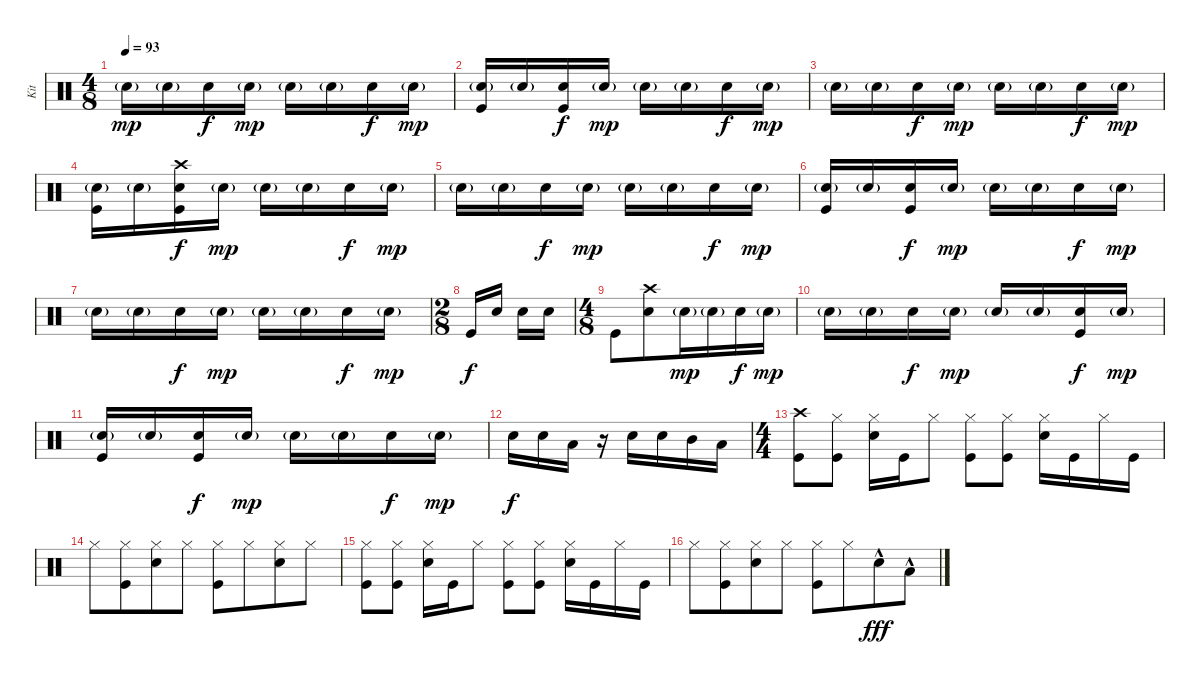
\track ("Kit" "Kit") {instrument percussion}
\staff {score}
\articulation defaults
\ts (4 8)
\tempo 93
\clef neutral
\ks aminor "Electric Snare (hit)"{g}.16{dy mp} "Electric Snare (hit)"{g}.16 "Electric Snare (hit)".16{dy f} "Electric Snare (hit)"{g}.16{dy mp} "Electric Snare (hit)"{g}.16 "Electric Snare (hit)"{g}.16 "Electric Snare (hit)".16{dy f} "Electric Snare (hit)"{g}.16{dy mp}
|
("Electric Snare (hit)"{g} "Kick (hit)").16 "Electric Snare (hit)"{g}.16 ("Electric Snare (hit)" "Kick (hit)").16{dy f} "Electric Snare (hit)"{g}.16{dy mp} "Electric Snare (hit)"{g}.16 "Electric Snare (hit)"{g}.16 "Electric Snare (hit)".16{dy f} "Electric Snare (hit)"{g}.16{dy mp} |
"Electric Snare (hit)"{g}.16 "Electric Snare (hit)"{g}.16 "Electric Snare (hit)".16{dy f} "Electric Snare (hit)"{g}.16{dy mp} "Electric Snare (hit)"{g}.16 "Electric Snare (hit)"{g}.16 "Electric Snare (hit)".16{dy f} "Electric Snare (hit)"{g}.16{dy mp} |
("Electric Snare (hit)"{g} "Kick (hit)").16 "Electric Snare (hit)"{g}.16 ("Crash high (hit)" "Electric Snare (hit)" "Kick (hit)").16{dy f} "Electric Snare (hit)"{g}.16{dy mp} "Electric Snare (hit)"{g}.16 "Electric Snare (hit)"{g}.16 "Electric Snare (hit)".16{dy f} "Electric Snare (hit)"{g}.16{dy mp} |
"Electric Snare (hit)"{g}.16 "Electric Snare (hit)"{g}.16 "Electric Snare (hit)".16{dy f} "Electric Snare (hit)"{g}.16{dy mp} "Electric Snare (hit)"{g}.16 "Electric Snare (hit)"{g}.16 "Electric Snare (hit)".16{dy f} "Electric Snare (hit)"{g}.16{dy mp} |
("Electric Snare (hit)"{g} "Kick (hit)").16 "Electric Snare (hit)"{g}.16 ("Electric Snare (hit)" "Kick (hit)").16{dy f} "Electric Snare (hit)"{g}.16{dy mp} "Electric Snare (hit)"{g}.16 "Electric Snare (hit)"{g}.16 "Electric Snare (hit)".16{dy f} "Electric Snare (hit)"{g}.16{dy mp} |
"Electric Snare (hit)"{g}.16 "Electric Snare (hit)"{g}.16 "Electric Snare (hit)".16{dy f} "Electric Snare (hit)"{g}.16{dy mp} "Electric Snare (hit)"{g}.16 "Electric Snare (hit)"{g}.16 "Electric Snare (hit)".16{dy f} "Electric Snare (hit)"{g}.16{dy mp} |
\ts (2 8)
"Kick (hit)".16{dy f beam merge} "Electric Snare (hit)".16 "Electric Snare (hit)".16{beam merge} "Electric Snare (hit)".16 |
\ts (4 8)
"Kick (hit)".8{beam merge} ("Crash high (hit)" "Electric Snare (hit)").8{beam merge} "Electric Snare (hit)"{g}.16{dy mp beam merge} "Electric Snare (hit)"{g}.16{beam merge} "Electric Snare (hit)".16{dy f beam merge} "Electric Snare (hit)"{g}.16{dy mp} |
"Electric Snare (hit)"{g}.16 "Electric Snare (hit)"{g}.16 "Electric Snare (hit)".16{dy f} "Electric Snare (hit)"{g}.16{dy mp} "Electric Snare (hit)"{g}.16 "Electric Snare (hit)"{g}.16 ("Electric Snare (hit)" "Kick (hit)").16{dy f} "Electric Snare (hit)"{g}.16{dy mp} |
("Electric Snare (hit)"{g} "Kick (hit)").16 "Electric Snare (hit)"{g}.16 ("Electric Snare (hit)" "Kick (hit)").16{dy f} "Electric Snare (hit)"{g}.16{dy mp} "Electric Snare (hit)"{g}.16 "Electric Snare (hit)"{g}.16 "Electric Snare (hit)".16{dy f} "Electric Snare (hit)"{g}.16{dy mp} |
"Electric Snare (hit)".16{dy f} "Electric Snare (hit)".16 "Low Tom (hit)".16 r.16 "Electric Snare (hit)".16 "Electric Snare (hit)".16 "Mid Tom (hit)".16 "Low Tom (hit)".16 |
\ts (4 4)
("Crash high (hit)" "Kick (hit)").8{beam merge} ("Hi-Hat (closed)" "Kick (hit)").8 ("Hi-Hat (closed)" "Electric Snare (hit)").16 "Kick (hit)".16 "Hi-Hat (closed)".8 ("Hi-Hat (closed)" "Kick (hit)").8{beam merge} ("Hi-Hat (closed)" "Kick (hit)").8 ("Hi-Hat (closed)" "Electric Snare (hit)").16 "Kick (hit)".16 "Hi-Hat (closed)".16 "Kick (hit)".16 |
"Hi-Hat (closed)".8 ("Hi-Hat (closed)" "Kick (hit)").8{beam merge} ("Hi-Hat (closed)" "Electric Snare (hit)").8{beam merge} "Hi-Hat (closed)".8 ("Hi-Hat (closed)" "Kick (hit)").8{beam merge} "Hi-Hat (closed)".8{beam merge} ("Hi-Hat (closed)" "Electric Snare (hit)").8 "Hi-Hat (closed)".8 |
("Hi-Hat (closed)" "Kick (hit)").8{beam merge} ("Hi-Hat (closed)" "Kick (hit)").8 ("Hi-Hat (closed)" "Electric Snare (hit)").16 "Kick (hit)".16 "Hi-Hat (closed)".8 ("Hi-Hat (closed)" "Kick (hit)").8{beam merge} ("Hi-Hat (closed)" "Kick (hit)").8 ("Hi-Hat (closed)" "Electric Snare (hit)").16 "Kick (hit)".16 "Hi-Hat (closed)".16 "Kick (hit)".16 |
"Hi-Hat (closed)".8 ("Hi-Hat (closed)" "Kick (hit)").8{beam merge} ("Hi-Hat (closed)" "Electric Snare (hit)").8{beam merge} "Hi-Hat (closed)".8 ("Hi-Hat (closed)" "Kick (hit)").8{beam merge} "Hi-Hat (closed)".8{beam merge} "Electric Snare (hit)"{hac}.8{dy fff beam merge} "Low Tom (hit)"{hac}.8
